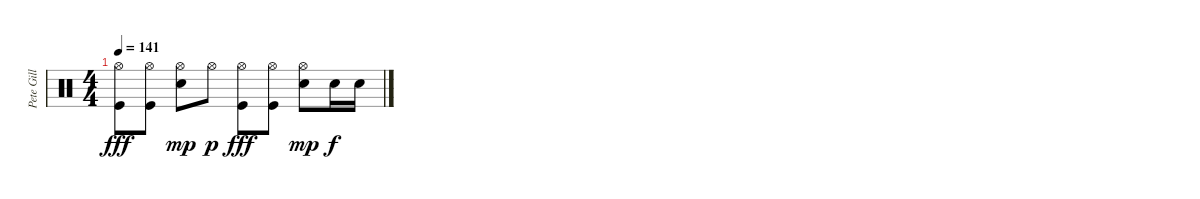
\track ("Pete Gill" "Pete Gill") {instrument percussion}
\staff {score}
\articulation defaults
\ts (4 4)
\tempo 141
\clef neutral
\ks c
("Hi-Hat (open)" "Kick (hit)").8{dy fff} ("Hi-Hat (open)" "Kick (hit)").8 ("Hi-Hat (open)" "Electric Snare (hit)").8{dy mp} "Hi-Hat (open)".8{dy p} ("Hi-Hat (open)" "Kick (hit)").8{dy fff} ("Hi-Hat (open)" "Kick (hit)").8 ("Hi-Hat (open)" "Electric Snare (hit)").8{dy mp} "Electric Snare (hit)".16{dy f} "Electric Snare (hit)".16
